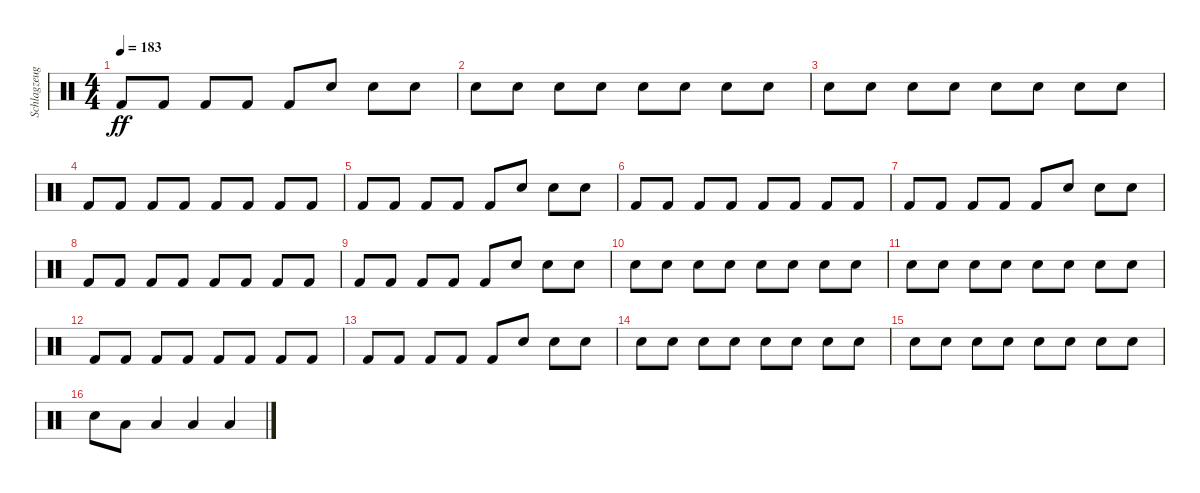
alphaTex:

\track ("Schlagzeug - Bela B." "Schlagzeug") {instrument percussion}
\staff {score}
\articulation defaults
\ts (4 4)
\tempo 183
\clef neutral
\ks c "Kick (hit) 2".8{dy ff} "Kick (hit) 2".8 "Kick (hit) 2".8 "Kick (hit) 2".8 "Kick (hit) 2".8 "Metronome (bell)".8 "Metronome (bell)".8 "Metronome (bell)".8
|
"Snare (hit) 2".8 "Snare (hit) 2".8 "Snare (hit) 2".8 "Snare (hit) 2".8 "Snare (hit) 2".8 "Snare (hit) 2".8 "Snare (hit) 2".8 "Snare (hit) 2".8 |
"Snare (hit) 2".8 "Snare (hit) 2".8 "Snare (hit) 2".8 "Snare (hit) 2".8 "Snare (hit) 2".8 "Snare (hit) 2".8 "Snare (hit) 2".8 "Snare (hit) 2".8 |
"Kick (hit) 2".8 "Kick (hit) 2".8 "Kick (hit) 2".8 "Kick (hit) 2".8 "Kick (hit) 2".8 "Kick (hit) 2".8 "Kick (hit) 2".8 "Kick (hit) 2".8 |
"Kick (hit) 2".8 "Kick (hit) 2".8 "Kick (hit) 2".8 "Kick (hit) 2".8 "Kick (hit) 2".8 "Metronome (bell)".8 "Metronome (bell)".8 "Metronome (bell)".8 |
"Kick (hit) 2".8 "Kick (hit) 2".8 "Kick (hit) 2".8 "Kick (hit) 2".8 "Kick (hit) 2".8 "Kick (hit) 2".8 "Kick (hit) 2".8 "Kick (hit) 2".8 |
"Kick (hit) 2".8 "Kick (hit) 2".8 "Kick (hit) 2".8 "Kick (hit) 2".8 "Kick (hit) 2".8 "Metronome (bell)".8 "Metronome (bell)".8 "Metronome (bell)".8 |
"Kick (hit) 2".8 "Kick (hit) 2".8 "Kick (hit) 2".8 "Kick (hit) 2".8 "Kick (hit) 2".8 "Kick (hit) 2".8 "Kick (hit) 2".8 "Kick (hit) 2".8 |
"Kick (hit) 2".8 "Kick (hit) 2".8 "Kick (hit) 2".8 "Kick (hit) 2".8 "Kick (hit) 2".8 "Metronome (bell)".8 "Metronome (bell)".8 "Metronome (bell)".8 |
"Snare (hit) 2".8 "Snare (hit) 2".8 "Snare (hit) 2".8 "Snare (hit) 2".8 "Snare (hit) 2".8 "Snare (hit) 2".8 "Snare (hit) 2".8 "Snare (hit) 2".8 |
"Snare (hit) 2".8 "Snare (hit) 2".8 "Snare (hit) 2".8 "Snare (hit) 2".8 "Snare (hit) 2".8 "Snare (hit) 2".8 "Snare (hit) 2".8 "Snare (hit) 2".8 |
"Kick (hit) 2".8 "Kick (hit) 2".8 "Kick (hit) 2".8 "Kick (hit) 2".8 "Kick (hit) 2".8 "Kick (hit) 2".8 "Kick (hit) 2".8 "Kick (hit) 2".8 |
"Kick (hit) 2".8 "Kick (hit) 2".8 "Kick (hit) 2".8 "Kick (hit) 2".8 "Kick (hit) 2".8 "Metronome (bell)".8 "Metronome (bell)".8 "Metronome (bell)".8 |
"Snare (hit) 2".8 "Snare (hit) 2".8 "Snare (hit) 2".8 "Snare (hit) 2".8 "Snare (hit) 2".8 "Snare (hit) 2".8 "Snare (hit) 2".8 "Snare (hit) 2".8 |
"Snare (hit) 2".8 "Snare (hit) 2".8 "Snare (hit) 2".8 "Snare (hit) 2".8 "Snare (hit) 2".8 "Snare (hit) 2".8 "Snare (hit) 2".8 "Snare (hit) 2".8 |
"Electric Snare (hit)".8 "Low Floor Tom (hit)".8 "Low Floor Tom (hit)".4 "Low Floor Tom (hit)".4 "Low Floor Tom (hit)".4
